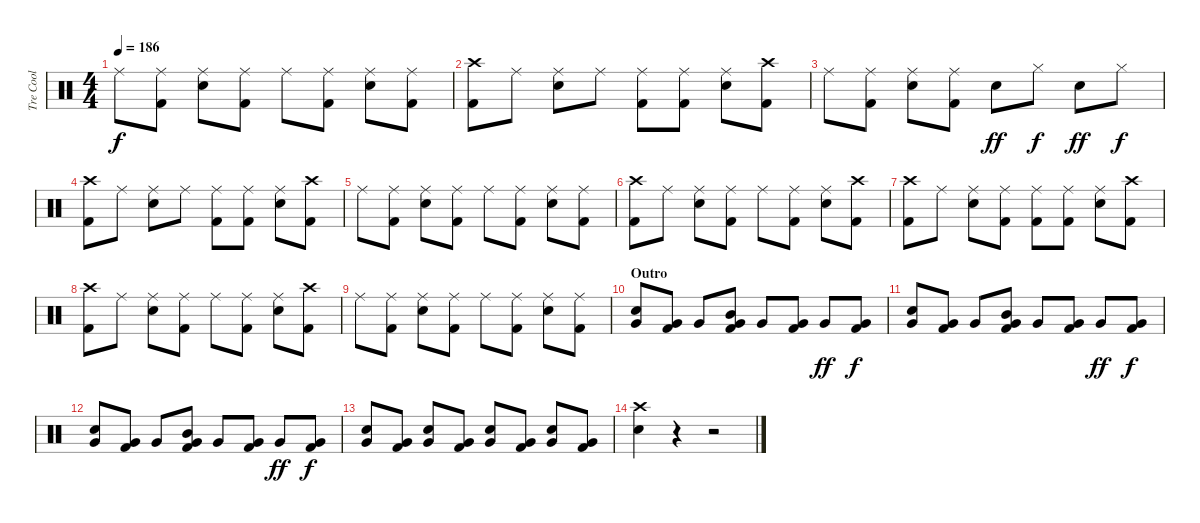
\track ("Tre Cool" "Tre Cool") {instrument percussion}
\staff {score}
\articulation defaults
\ts (4 4)
\tempo 186
\clef neutral
\ks c "Ride (middle)".8{dy f}
("Ride (middle)" "Kick (hit) 2").8 ("Ride (middle)" "Electric Snare (hit)").8 ("Ride (middle)" "Kick (hit) 2").8 "Ride (middle)".8 ("Ride (middle)" "Kick (hit) 2").8 ("Ride (middle)" "Electric Snare (hit)").8 ("Ride (middle)" "Kick (hit) 2").8 |
("Crash high (hit)" "Kick (hit) 2").8 "Ride (middle)".8 ("Ride (middle)" "Electric Snare (hit)").8 "Ride (middle)".8 ("Ride (middle)" "Kick (hit) 2").8 ("Ride (middle)" "Kick (hit) 2").8 ("Ride (middle)" "Electric Snare (hit)").8 ("Crash high (hit)" "Kick (hit) 2").8 |
"Ride (middle)".8 ("Ride (middle)" "Kick (hit) 2").8 ("Ride (middle)" "Electric Snare (hit)").8 ("Ride (middle)" "Kick (hit) 2").8 "Electric Snare (hit)".8{dy ff} "Hi-Hat (closed)".8{dy f} "Electric Snare (hit)".8{dy ff} "Hi-Hat (closed)".8{dy f} |
("Crash high (hit)" "Kick (hit) 2").8 "Ride (middle)".8 ("Ride (middle)" "Electric Snare (hit)").8 "Ride (middle)".8 ("Ride (middle)" "Kick (hit) 2").8 ("Ride (middle)" "Kick (hit) 2").8 ("Ride (middle)" "Electric Snare (hit)").8 ("Crash high (hit)" "Kick (hit) 2").8 |
"Ride (middle)".8 ("Ride (middle)" "Kick (hit) 2").8 ("Ride (middle)" "Electric Snare (hit)").8 ("Ride (middle)" "Kick (hit) 2").8 "Ride (middle)".8 ("Ride (middle)" "Kick (hit) 2").8 ("Ride (middle)" "Electric Snare (hit)").8 ("Ride (middle)" "Kick (hit) 2").8 |
("Crash high (hit)" "Kick (hit) 2").8 "Ride (middle)".8 ("Ride (middle)" "Electric Snare (hit)").8 ("Ride (middle)" "Kick (hit) 2").8 "Ride (middle)".8 ("Ride (middle)" "Kick (hit) 2").8 ("Ride (middle)" "Electric Snare (hit)").8 ("Crash high (hit)" "Kick (hit) 2").8 |
("Crash high (hit)" "Kick (hit) 2").8 "Ride (middle)".8 ("Ride (middle)" "Electric Snare (hit)").8 ("Ride (middle)" "Kick (hit) 2").8 ("Ride (middle)" "Kick (hit) 2").8 ("Ride (middle)" "Kick (hit) 2").8 ("Ride (middle)" "Electric Snare (hit)").8 ("Crash high (hit)" "Kick (hit) 2").8 |
("Crash high (hit)" "Kick (hit) 2").8 "Ride (middle)".8 ("Ride (middle)" "Electric Snare (hit)").8 ("Ride (middle)" "Kick (hit) 2").8 "Ride (middle)".8 ("Ride (middle)" "Kick (hit) 2").8 ("Ride (middle)" "Electric Snare (hit)").8 ("Crash high (hit)" "Kick (hit) 2").8 |
"Ride (middle)".8 ("Ride (middle)" "Kick (hit) 2").8 ("Ride (middle)" "Electric Snare (hit)").8 ("Ride (middle)" "Kick (hit) 2").8 "Ride (middle)".8 ("Ride (middle)" "Kick (hit) 2").8 ("Ride (middle)" "Electric Snare (hit)").8 ("Ride (middle)" "Kick (hit) 2").8 |
\section ("" "Outro")
("Very Low Tom (hit)" "Electric Snare (hit)").8 ("Very Low Tom (hit)" "Kick (hit) 2").8 "Very Low Tom (hit)".8 ("Very Low Tom (hit)" "Mid Tom (hit)" "Kick (hit) 2").8 "Very Low Tom (hit)".8 ("Very Low Tom (hit)" "Kick (hit) 2").8 "Very Low Tom (hit)".8{dy ff} ("Very Low Tom (hit)" "Kick (hit) 2").8{dy f} |
("Very Low Tom (hit)" "Electric Snare (hit)").8 ("Very Low Tom (hit)" "Kick (hit) 2").8 "Very Low Tom (hit)".8 ("Very Low Tom (hit)" "Mid Tom (hit)" "Kick (hit) 2").8 "Very Low Tom (hit)".8 ("Very Low Tom (hit)" "Kick (hit) 2").8 "Very Low Tom (hit)".8{dy ff} ("Very Low Tom (hit)" "Kick (hit) 2").8{dy f} |
("Very Low Tom (hit)" "Electric Snare (hit)").8 ("Very Low Tom (hit)" "Kick (hit) 2").8 "Very Low Tom (hit)".8 ("Very Low Tom (hit)" "Mid Tom (hit)" "Kick (hit) 2").8 "Very Low Tom (hit)".8 ("Very Low Tom (hit)" "Kick (hit) 2").8 "Very Low Tom (hit)".8{dy ff} ("Very Low Tom (hit)" "Kick (hit) 2").8{dy f} |
("Very Low Tom (hit)" "Electric Snare (hit)").8 ("Very Low Tom (hit)" "Kick (hit) 2").8 ("Very Low Tom (hit)" "Electric Snare (hit)").8 ("Very Low Tom (hit)" "Kick (hit) 2").8 ("Very Low Tom (hit)" "Electric Snare (hit)").8 ("Very Low Tom (hit)" "Kick (hit) 2").8 ("Very Low Tom (hit)" "Electric Snare (hit)").8 ("Very Low Tom (hit)" "Kick (hit) 2").8 |
("Crash high (hit)" "Electric Snare (hit)").4 r.4 r.2
